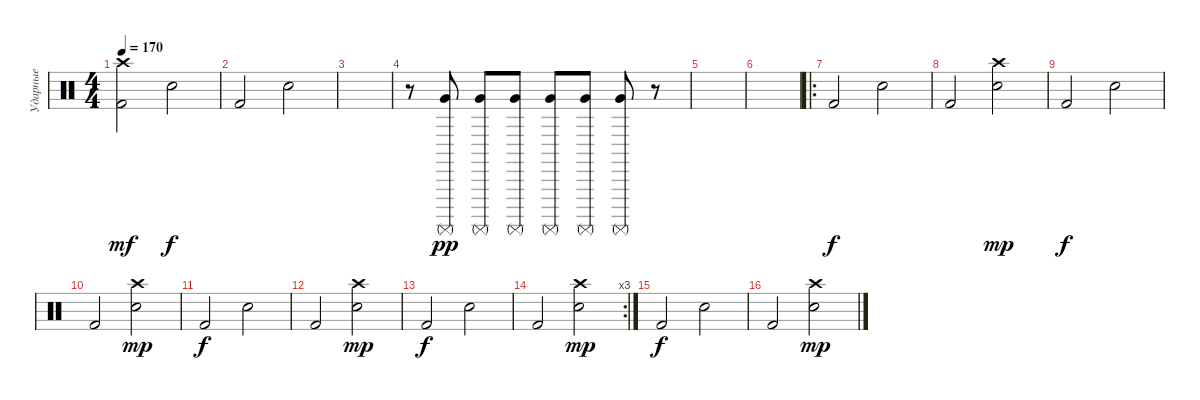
\track ("Ударные" "Ударные") {instrument percussion}
\staff {score}
\articulation defaults
\ts (4 4)
\tempo 170
\clef neutral
\ks c
("Kick (hit) 2" "Crash high (hit)").2{dy mf} "Electric Snare (hit)".2{dy f} |
"Kick (hit) 2".2 "Electric Snare (hit)".2 |
|
r.8 ("Surdo (mute)" "Very Low Tom (hit)").8{dy pp} ("Surdo (mute)" "Very Low Tom (hit)").8 ("Surdo (mute)" "Very Low Tom (hit)").8 ("Surdo (mute)" "Very Low Tom (hit)").8 ("Surdo (mute)" "Very Low Tom (hit)").8 ("Surdo (mute)" "Very Low Tom (hit)").8 r.8 |
|
|
\ro "Kick (hit) 2".2{dy f} "Electric Snare (hit)".2
|
"Kick (hit) 2".2 ("Electric Snare (hit)" "Crash high (hit)").2{dy mp} |
"Kick (hit) 2".2{dy f} "Electric Snare (hit)".2 |
"Kick (hit) 2".2 ("Electric Snare (hit)" "Crash high (hit)").2{dy mp} |
"Kick (hit) 2".2{dy f} "Electric Snare (hit)".2 |
"Kick (hit) 2".2 ("Electric Snare (hit)" "Crash high (hit)").2{dy mp} |
"Kick (hit) 2".2{dy f} "Electric Snare (hit)".2 |
\rc 3 "Kick (hit) 2".2
("Electric Snare (hit)" "Crash high (hit)").2{dy mp} |
"Kick (hit) 2".2{dy f} "Electric Snare (hit)".2 |
"Kick (hit) 2".2 ("Electric Snare (hit)" "Crash high (hit)").2{dy mp}
